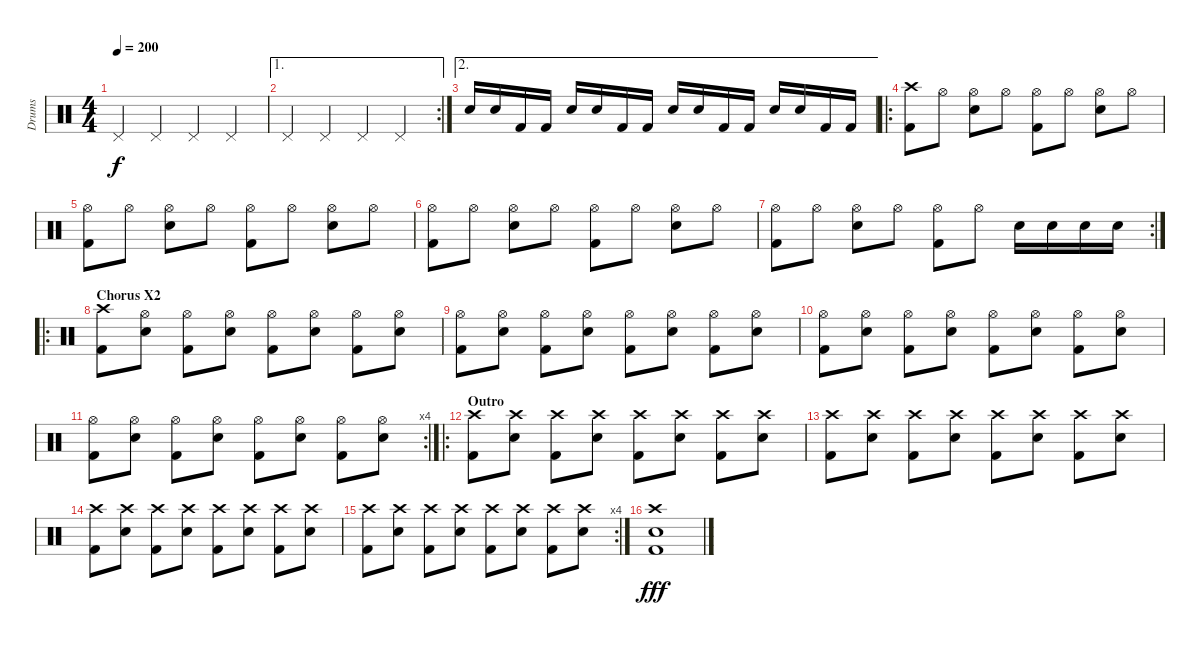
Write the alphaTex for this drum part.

\track ("Drums" "Drums") {instrument percussion}
\staff {score}
\articulation defaults
\ts (4 4)
\tempo 200
\clef neutral
\ks c "Pedal Hi-Hat (hit)".4{dy f} "Pedal Hi-Hat (hit)".4 "Pedal Hi-Hat (hit)".4 "Pedal Hi-Hat (hit)".4
|
\ae 1
\rc 2 "Pedal Hi-Hat (hit)".4 "Pedal Hi-Hat (hit)".4 "Pedal Hi-Hat (hit)".4 "Pedal Hi-Hat (hit)".4
|
\ae 2 "Electric Snare (hit)".16 "Electric Snare (hit)".16 "Kick (hit) 2".16 "Kick (hit) 2".16 "Electric Snare (hit)".16 "Electric Snare (hit)".16 "Kick (hit) 2".16 "Kick (hit) 2".16 "Electric Snare (hit)".16 "Electric Snare (hit)".16 "Kick (hit) 2".16 "Kick (hit) 2".16 "Electric Snare (hit)".16 "Electric Snare (hit)".16 "Kick (hit) 2".16 "Kick (hit) 2".16
|
\ro
("Crash high (hit)" "Kick (hit) 2").8 "Hi-Hat (open)".8 ("Hi-Hat (open)" "Electric Snare (hit)").8 "Hi-Hat (open)".8 ("Hi-Hat (open)" "Kick (hit) 2").8 "Hi-Hat (open)".8 ("Hi-Hat (open)" "Electric Snare (hit)").8 "Hi-Hat (open)".8 |
("Hi-Hat (open)" "Kick (hit) 2").8 "Hi-Hat (open)".8 ("Hi-Hat (open)" "Electric Snare (hit)").8 "Hi-Hat (open)".8 ("Hi-Hat (open)" "Kick (hit) 2").8 "Hi-Hat (open)".8 ("Hi-Hat (open)" "Electric Snare (hit)").8 "Hi-Hat (open)".8 |
("Hi-Hat (open)" "Kick (hit) 2").8 "Hi-Hat (open)".8 ("Hi-Hat (open)" "Electric Snare (hit)").8 "Hi-Hat (open)".8 ("Hi-Hat (open)" "Kick (hit) 2").8 "Hi-Hat (open)".8 ("Hi-Hat (open)" "Electric Snare (hit)").8 "Hi-Hat (open)".8 |
\rc 2
("Hi-Hat (open)" "Kick (hit) 2").8 "Hi-Hat (open)".8 ("Hi-Hat (open)" "Electric Snare (hit)").8 "Hi-Hat (open)".8 ("Hi-Hat (open)" "Kick (hit) 2").8 "Hi-Hat (open)".8 "Electric Snare (hit)".16 "Electric Snare (hit)".16 "Electric Snare (hit)".16 "Electric Snare (hit)".16 |
\ro
\section ("" "Chorus X2")
("Crash high (hit)" "Kick (hit) 2").8 ("Hi-Hat (open)" "Electric Snare (hit)").8 ("Hi-Hat (open)" "Kick (hit) 2").8 ("Hi-Hat (open)" "Electric Snare (hit)").8 ("Hi-Hat (open)" "Kick (hit) 2").8 ("Hi-Hat (open)" "Electric Snare (hit)").8 ("Hi-Hat (open)" "Kick (hit) 2").8 ("Hi-Hat (open)" "Electric Snare (hit)").8 |
("Hi-Hat (open)" "Kick (hit) 2").8 ("Hi-Hat (open)" "Electric Snare (hit)").8 ("Hi-Hat (open)" "Kick (hit) 2").8 ("Hi-Hat (open)" "Electric Snare (hit)").8 ("Hi-Hat (open)" "Kick (hit) 2").8 ("Hi-Hat (open)" "Electric Snare (hit)").8 ("Hi-Hat (open)" "Kick (hit) 2").8 ("Hi-Hat (open)" "Electric Snare (hit)").8 |
("Hi-Hat (open)" "Kick (hit) 2").8 ("Hi-Hat (open)" "Electric Snare (hit)").8 ("Hi-Hat (open)" "Kick (hit) 2").8 ("Hi-Hat (open)" "Electric Snare (hit)").8 ("Hi-Hat (open)" "Kick (hit) 2").8 ("Hi-Hat (open)" "Electric Snare (hit)").8 ("Hi-Hat (open)" "Kick (hit) 2").8 ("Hi-Hat (open)" "Electric Snare (hit)").8 |
\rc 4
("Hi-Hat (open)" "Kick (hit) 2").8 ("Hi-Hat (open)" "Electric Snare (hit)").8 ("Hi-Hat (open)" "Kick (hit) 2").8 ("Hi-Hat (open)" "Electric Snare (hit)").8 ("Hi-Hat (open)" "Kick (hit) 2").8 ("Hi-Hat (open)" "Electric Snare (hit)").8 ("Hi-Hat (open)" "Kick (hit) 2").8 ("Hi-Hat (open)" "Electric Snare (hit)").8 |
\ro
\section ("" "Outro")
("Crash high (hit)" "Kick (hit) 2").8 ("Crash high (hit)" "Electric Snare (hit)").8 ("Crash high (hit)" "Kick (hit) 2").8 ("Crash high (hit)" "Electric Snare (hit)").8 ("Crash high (hit)" "Kick (hit) 2").8 ("Crash high (hit)" "Electric Snare (hit)").8 ("Crash high (hit)" "Kick (hit) 2").8 ("Crash high (hit)" "Electric Snare (hit)").8 |
("Crash high (hit)" "Kick (hit) 2").8 ("Crash high (hit)" "Electric Snare (hit)").8 ("Crash high (hit)" "Kick (hit) 2").8 ("Crash high (hit)" "Electric Snare (hit)").8 ("Crash high (hit)" "Kick (hit) 2").8 ("Crash high (hit)" "Electric Snare (hit)").8 ("Crash high (hit)" "Kick (hit) 2").8 ("Crash high (hit)" "Electric Snare (hit)").8 |
("Crash high (hit)" "Kick (hit) 2").8 ("Crash high (hit)" "Electric Snare (hit)").8 ("Crash high (hit)" "Kick (hit) 2").8 ("Crash high (hit)" "Electric Snare (hit)").8 ("Crash high (hit)" "Kick (hit) 2").8 ("Crash high (hit)" "Electric Snare (hit)").8 ("Crash high (hit)" "Kick (hit) 2").8 ("Crash high (hit)" "Electric Snare (hit)").8 |
\rc 4
("Crash high (hit)" "Kick (hit) 2").8 ("Crash high (hit)" "Electric Snare (hit)").8 ("Crash high (hit)" "Kick (hit) 2").8 ("Crash high (hit)" "Electric Snare (hit)").8 ("Crash high (hit)" "Kick (hit) 2").8 ("Crash high (hit)" "Electric Snare (hit)").8 ("Crash high (hit)" "Kick (hit) 2").8 ("Crash high (hit)" "Electric Snare (hit)").8 |
("Crash high (hit)" "Electric Snare (hit)" "Kick (hit) 2").1{dy fff}
